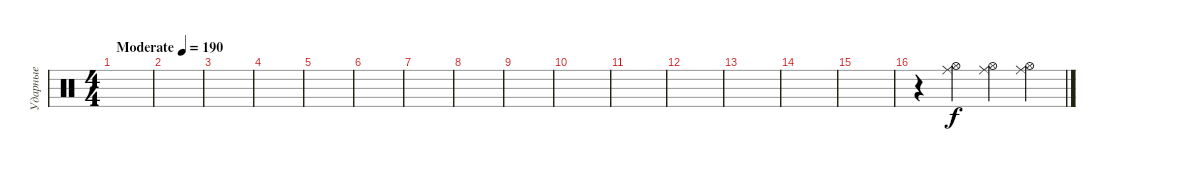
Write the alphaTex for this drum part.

\track ("Ударные" "Ударные") {instrument percussion}
\staff {score}
\articulation defaults
\ts (4 4)
\tempo (190 "Moderate")
\clef neutral
\ks c
|
|
|
|
|
|
|
|
|
|
|
|
|
|
|
r.4 ("Ride (middle)" "Hi-Hat (open)").4 ("Ride (middle)" "Hi-Hat (open)").4 ("Ride (middle)" "Hi-Hat (open)").4
